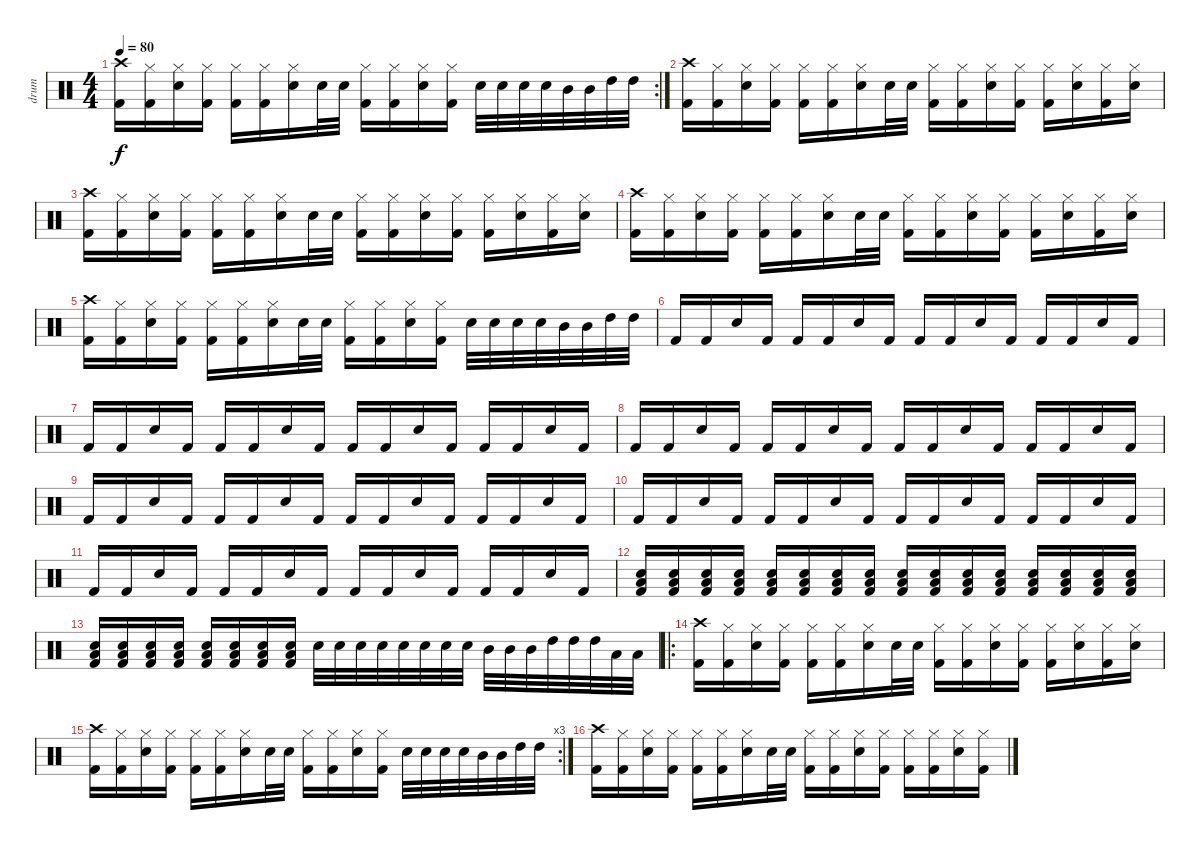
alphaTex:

\track ("drum" "drum") {instrument percussion}
\staff {score}
\articulation defaults
\rc 2
\ts (4 4)
\tempo 80
\clef neutral
\ks c
("Crash high (hit)" "Kick (hit) 2").16{dy f} ("Hi-Hat (closed)" "Kick (hit) 2").16 ("Hi-Hat (closed)" "Electric Snare (hit)").16 ("Hi-Hat (closed)" "Kick (hit) 2").16 ("Hi-Hat (closed)" "Kick (hit) 2").16 ("Hi-Hat (closed)" "Kick (hit) 2").16 ("Hi-Hat (closed)" "Electric Snare (hit)").16 "Electric Snare (hit)".32 "Electric Snare (hit)".32 ("Hi-Hat (closed)" "Kick (hit) 2").16 ("Hi-Hat (closed)" "Kick (hit) 2").16 ("Hi-Hat (closed)" "Electric Snare (hit)").16 ("Hi-Hat (closed)" "Kick (hit) 2").16 "Electric Snare (hit)".32 "Electric Snare (hit)".32 "Electric Snare (hit)".32 "Electric Snare (hit)".32 "Mid Tom (hit)".32 "Mid Tom (hit)".32 "High Tom (hit)".32 "High Tom (hit)".32 |
("Crash high (hit)" "Kick (hit) 2").16 ("Hi-Hat (closed)" "Kick (hit) 2").16 ("Hi-Hat (closed)" "Electric Snare (hit)").16 ("Hi-Hat (closed)" "Kick (hit) 2").16 ("Hi-Hat (closed)" "Kick (hit) 2").16 ("Hi-Hat (closed)" "Kick (hit) 2").16 ("Hi-Hat (closed)" "Electric Snare (hit)").16 "Electric Snare (hit)".32 "Electric Snare (hit)".32 ("Hi-Hat (closed)" "Kick (hit) 2").16 ("Hi-Hat (closed)" "Kick (hit) 2").16 ("Hi-Hat (closed)" "Electric Snare (hit)").16 ("Hi-Hat (closed)" "Kick (hit) 2").16 ("Hi-Hat (closed)" "Kick (hit) 2").16 ("Hi-Hat (closed)" "Electric Snare (hit)").16 ("Hi-Hat (closed)" "Kick (hit) 2").16 ("Hi-Hat (closed)" "Electric Snare (hit)").16 |
("Crash high (hit)" "Kick (hit) 2").16 ("Hi-Hat (closed)" "Kick (hit) 2").16 ("Hi-Hat (closed)" "Electric Snare (hit)").16 ("Hi-Hat (closed)" "Kick (hit) 2").16 ("Hi-Hat (closed)" "Kick (hit) 2").16 ("Hi-Hat (closed)" "Kick (hit) 2").16 ("Hi-Hat (closed)" "Electric Snare (hit)").16 "Electric Snare (hit)".32 "Electric Snare (hit)".32 ("Hi-Hat (closed)" "Kick (hit) 2").16 ("Hi-Hat (closed)" "Kick (hit) 2").16 ("Hi-Hat (closed)" "Electric Snare (hit)").16 ("Hi-Hat (closed)" "Kick (hit) 2").16 ("Hi-Hat (closed)" "Kick (hit) 2").16 ("Hi-Hat (closed)" "Electric Snare (hit)").16 ("Hi-Hat (closed)" "Kick (hit) 2").16 ("Hi-Hat (closed)" "Electric Snare (hit)").16 |
("Crash high (hit)" "Kick (hit) 2").16 ("Hi-Hat (closed)" "Kick (hit) 2").16 ("Hi-Hat (closed)" "Electric Snare (hit)").16 ("Hi-Hat (closed)" "Kick (hit) 2").16 ("Hi-Hat (closed)" "Kick (hit) 2").16 ("Hi-Hat (closed)" "Kick (hit) 2").16 ("Hi-Hat (closed)" "Electric Snare (hit)").16 "Electric Snare (hit)".32 "Electric Snare (hit)".32 ("Hi-Hat (closed)" "Kick (hit) 2").16 ("Hi-Hat (closed)" "Kick (hit) 2").16 ("Hi-Hat (closed)" "Electric Snare (hit)").16 ("Hi-Hat (closed)" "Kick (hit) 2").16 ("Hi-Hat (closed)" "Kick (hit) 2").16 ("Hi-Hat (closed)" "Electric Snare (hit)").16 ("Hi-Hat (closed)" "Kick (hit) 2").16 ("Hi-Hat (closed)" "Electric Snare (hit)").16 |
("Crash high (hit)" "Kick (hit) 2").16 ("Hi-Hat (closed)" "Kick (hit) 2").16 ("Hi-Hat (closed)" "Electric Snare (hit)").16 ("Hi-Hat (closed)" "Kick (hit) 2").16 ("Hi-Hat (closed)" "Kick (hit) 2").16 ("Hi-Hat (closed)" "Kick (hit) 2").16 ("Hi-Hat (closed)" "Electric Snare (hit)").16 "Electric Snare (hit)".32 "Electric Snare (hit)".32 ("Hi-Hat (closed)" "Kick (hit) 2").16 ("Hi-Hat (closed)" "Kick (hit) 2").16 ("Hi-Hat (closed)" "Electric Snare (hit)").16 ("Hi-Hat (closed)" "Kick (hit) 2").16 "Electric Snare (hit)".32 "Electric Snare (hit)".32 "Electric Snare (hit)".32 "Electric Snare (hit)".32 "Mid Tom (hit)".32 "Mid Tom (hit)".32 "High Tom (hit)".32 "High Tom (hit)".32 |
"Kick (hit) 2".16 "Kick (hit) 2".16 "Electric Snare (hit)".16 "Kick (hit) 2".16 "Kick (hit) 2".16 "Kick (hit) 2".16 "Electric Snare (hit)".16 "Kick (hit) 2".16 "Kick (hit) 2".16 "Kick (hit) 2".16 "Electric Snare (hit)".16 "Kick (hit) 2".16 "Kick (hit) 2".16 "Kick (hit) 2".16 "Electric Snare (hit)".16 "Kick (hit) 2".16 |
"Kick (hit) 2".16 "Kick (hit) 2".16 "Electric Snare (hit)".16 "Kick (hit) 2".16 "Kick (hit) 2".16 "Kick (hit) 2".16 "Electric Snare (hit)".16 "Kick (hit) 2".16 "Kick (hit) 2".16 "Kick (hit) 2".16 "Electric Snare (hit)".16 "Kick (hit) 2".16 "Kick (hit) 2".16 "Kick (hit) 2".16 "Electric Snare (hit)".16 "Kick (hit) 2".16 |
"Kick (hit) 2".16 "Kick (hit) 2".16 "Electric Snare (hit)".16 "Kick (hit) 2".16 "Kick (hit) 2".16 "Kick (hit) 2".16 "Electric Snare (hit)".16 "Kick (hit) 2".16 "Kick (hit) 2".16 "Kick (hit) 2".16 "Electric Snare (hit)".16 "Kick (hit) 2".16 "Kick (hit) 2".16 "Kick (hit) 2".16 "Electric Snare (hit)".16 "Kick (hit) 2".16 |
"Kick (hit) 2".16 "Kick (hit) 2".16 "Electric Snare (hit)".16 "Kick (hit) 2".16 "Kick (hit) 2".16 "Kick (hit) 2".16 "Electric Snare (hit)".16 "Kick (hit) 2".16 "Kick (hit) 2".16 "Kick (hit) 2".16 "Electric Snare (hit)".16 "Kick (hit) 2".16 "Kick (hit) 2".16 "Kick (hit) 2".16 "Electric Snare (hit)".16 "Kick (hit) 2".16 |
"Kick (hit) 2".16 "Kick (hit) 2".16 "Electric Snare (hit)".16 "Kick (hit) 2".16 "Kick (hit) 2".16 "Kick (hit) 2".16 "Electric Snare (hit)".16 "Kick (hit) 2".16 "Kick (hit) 2".16 "Kick (hit) 2".16 "Electric Snare (hit)".16 "Kick (hit) 2".16 "Kick (hit) 2".16 "Kick (hit) 2".16 "Electric Snare (hit)".16 "Kick (hit) 2".16 |
"Kick (hit) 2".16 "Kick (hit) 2".16 "Electric Snare (hit)".16 "Kick (hit) 2".16 "Kick (hit) 2".16 "Kick (hit) 2".16 "Electric Snare (hit)".16 "Kick (hit) 2".16 "Kick (hit) 2".16 "Kick (hit) 2".16 "Electric Snare (hit)".16 "Kick (hit) 2".16 "Kick (hit) 2".16 "Kick (hit) 2".16 "Electric Snare (hit)".16 "Kick (hit) 2".16 |
("Kick (hit) 2" "Low Tom (hit)" "Electric Snare (hit)").16 ("Kick (hit) 2" "Low Tom (hit)" "Electric Snare (hit)").16 ("Kick (hit) 2" "Low Tom (hit)" "Electric Snare (hit)").16 ("Kick (hit) 2" "Low Tom (hit)" "Electric Snare (hit)").16 ("Kick (hit) 2" "Low Tom (hit)" "Electric Snare (hit)").16 ("Kick (hit) 2" "Low Tom (hit)" "Electric Snare (hit)").16 ("Kick (hit) 2" "Low Tom (hit)" "Electric Snare (hit)").16 ("Kick (hit) 2" "Low Tom (hit)" "Electric Snare (hit)").16 ("Kick (hit) 2" "Low Tom (hit)" "Electric Snare (hit)").16 ("Kick (hit) 2" "Low Tom (hit)" "Electric Snare (hit)").16 ("Kick (hit) 2" "Low Tom (hit)" "Electric Snare (hit)").16 ("Kick (hit) 2" "Low Tom (hit)" "Electric Snare (hit)").16 ("Kick (hit) 2" "Low Tom (hit)" "Electric Snare (hit)").16 ("Kick (hit) 2" "Low Tom (hit)" "Electric Snare (hit)").16 ("Kick (hit) 2" "Low Tom (hit)" "Electric Snare (hit)").16 ("Kick (hit) 2" "Low Tom (hit)" "Electric Snare (hit)").16 |
("Kick (hit) 2" "Low Tom (hit)" "Electric Snare (hit)").16 ("Kick (hit) 2" "Low Tom (hit)" "Electric Snare (hit)").16 ("Kick (hit) 2" "Low Tom (hit)" "Electric Snare (hit)").16 ("Kick (hit) 2" "Low Tom (hit)" "Electric Snare (hit)").16 ("Kick (hit) 2" "Low Tom (hit)" "Electric Snare (hit)").16 ("Kick (hit) 2" "Low Tom (hit)" "Electric Snare (hit)").16 ("Kick (hit) 2" "Low Tom (hit)" "Electric Snare (hit)").16 ("Kick (hit) 2" "Low Tom (hit)" "Electric Snare (hit)").16 "Electric Snare (hit)".32 "Electric Snare (hit)".32 "Electric Snare (hit)".32 "Electric Snare (hit)".32 "Electric Snare (hit)".32 "Electric Snare (hit)".32 "Electric Snare (hit)".32 "Electric Snare (hit)".32 "Mid Tom (hit)".32 "Mid Tom (hit)".32 "Mid Tom (hit)".32 "High Tom (hit)".32 "High Tom (hit)".32 "High Tom (hit)".32 "Low Tom (hit)".32 "Low Tom (hit)".32 |
\ro
("Crash high (hit)" "Kick (hit) 2").16 ("Hi-Hat (closed)" "Kick (hit) 2").16 ("Hi-Hat (closed)" "Electric Snare (hit)").16 ("Hi-Hat (closed)" "Kick (hit) 2").16 ("Hi-Hat (closed)" "Kick (hit) 2").16 ("Hi-Hat (closed)" "Kick (hit) 2").16 ("Hi-Hat (closed)" "Electric Snare (hit)").16 "Electric Snare (hit)".32 "Electric Snare (hit)".32 ("Hi-Hat (closed)" "Kick (hit) 2").16 ("Hi-Hat (closed)" "Kick (hit) 2").16 ("Hi-Hat (closed)" "Electric Snare (hit)").16 ("Hi-Hat (closed)" "Kick (hit) 2").16 ("Hi-Hat (closed)" "Kick (hit) 2").16 ("Hi-Hat (closed)" "Electric Snare (hit)").16 ("Hi-Hat (closed)" "Kick (hit) 2").16 ("Hi-Hat (closed)" "Electric Snare (hit)").16 |
\rc 3
("Crash high (hit)" "Kick (hit) 2").16 ("Hi-Hat (closed)" "Kick (hit) 2").16 ("Hi-Hat (closed)" "Electric Snare (hit)").16 ("Hi-Hat (closed)" "Kick (hit) 2").16 ("Hi-Hat (closed)" "Kick (hit) 2").16 ("Hi-Hat (closed)" "Kick (hit) 2").16 ("Hi-Hat (closed)" "Electric Snare (hit)").16 "Electric Snare (hit)".32 "Electric Snare (hit)".32 ("Hi-Hat (closed)" "Kick (hit) 2").16 ("Hi-Hat (closed)" "Kick (hit) 2").16 ("Hi-Hat (closed)" "Electric Snare (hit)").16 ("Hi-Hat (closed)" "Kick (hit) 2").16 "Electric Snare (hit)".32 "Electric Snare (hit)".32 "Electric Snare (hit)".32 "Electric Snare (hit)".32 "Mid Tom (hit)".32 "Mid Tom (hit)".32 "High Tom (hit)".32 "High Tom (hit)".32 |
("Crash high (hit)" "Kick (hit) 2").16 ("Hi-Hat (closed)" "Kick (hit) 2").16 ("Hi-Hat (closed)" "Electric Snare (hit)").16 ("Hi-Hat (closed)" "Kick (hit) 2").16 ("Hi-Hat (closed)" "Kick (hit) 2").16 ("Hi-Hat (closed)" "Kick (hit) 2").16 ("Hi-Hat (closed)" "Electric Snare (hit)").16 "Electric Snare (hit)".32 "Electric Snare (hit)".32 ("Hi-Hat (closed)" "Kick (hit) 2").16 ("Hi-Hat (closed)" "Kick (hit) 2").16 ("Hi-Hat (closed)" "Electric Snare (hit)").16 ("Hi-Hat (closed)" "Kick (hit) 2").16 ("Hi-Hat (closed)" "Kick (hit) 2").16 ("Hi-Hat (closed)" "Kick (hit) 2").16 ("Hi-Hat (closed)" "Electric Snare (hit)").16 ("Hi-Hat (closed)" "Kick (hit) 2").16
